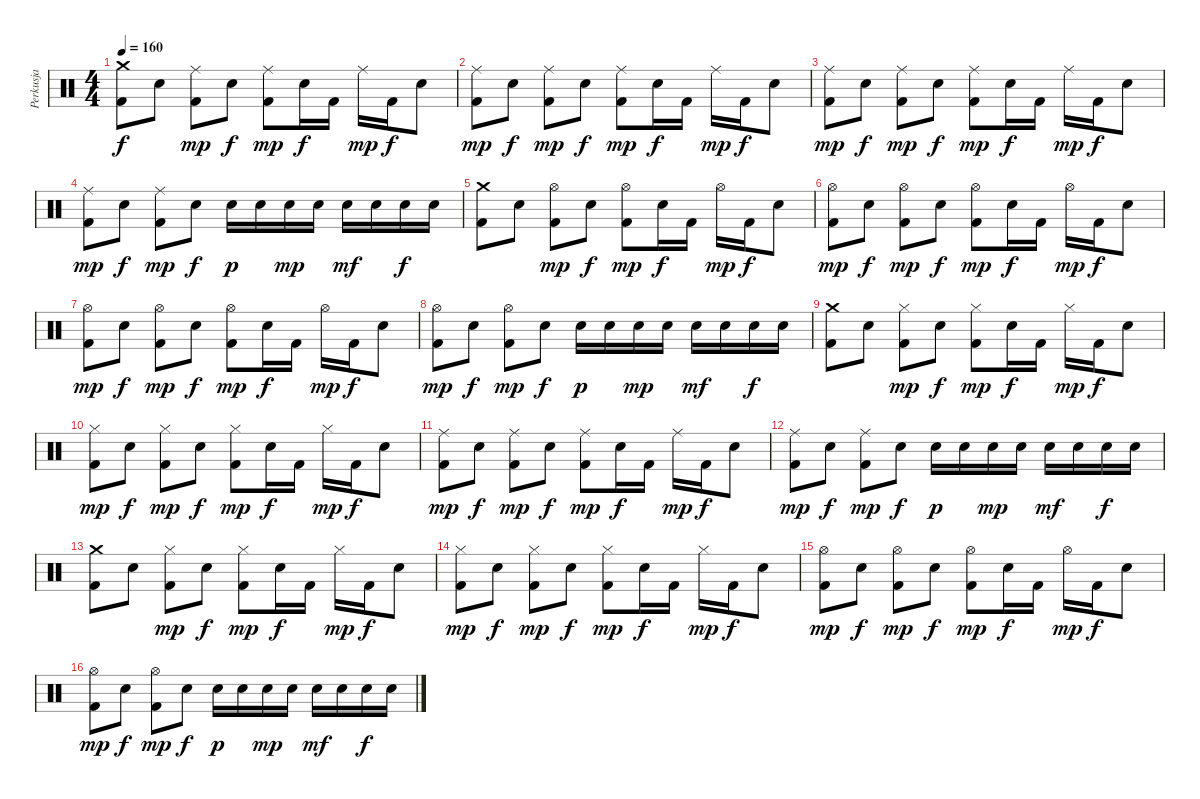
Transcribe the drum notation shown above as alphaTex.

\track ("Perkusja" "Perkusja") {instrument percussion}
\staff {score}
\articulation defaults
\ts (4 4)
\tempo 160
\clef neutral
\ks c
("Kick (hit) 2" "Crash medium (hit)").8{dy f} "Electric Snare (hit)".8 ("Kick (hit) 2" "Ride (middle)").8{dy mp} "Electric Snare (hit)".8{dy f} ("Kick (hit) 2" "Ride (middle)").8{dy mp} "Electric Snare (hit)".16{dy f} "Kick (hit) 2".16 "Ride (middle)".16{dy mp} "Kick (hit) 2".16{dy f} "Electric Snare (hit)".8 |
("Kick (hit) 2" "Ride (middle)").8{dy mp} "Electric Snare (hit)".8{dy f} ("Kick (hit) 2" "Ride (middle)").8{dy mp} "Electric Snare (hit)".8{dy f} ("Kick (hit) 2" "Ride (middle)").8{dy mp} "Electric Snare (hit)".16{dy f} "Kick (hit) 2".16 "Ride (middle)".16{dy mp} "Kick (hit) 2".16{dy f} "Electric Snare (hit)".8 |
("Kick (hit) 2" "Ride (middle)").8{dy mp} "Electric Snare (hit)".8{dy f} ("Kick (hit) 2" "Ride (middle)").8{dy mp} "Electric Snare (hit)".8{dy f} ("Kick (hit) 2" "Ride (middle)").8{dy mp} "Electric Snare (hit)".16{dy f} "Kick (hit) 2".16 "Ride (middle)".16{dy mp} "Kick (hit) 2".16{dy f} "Electric Snare (hit)".8 |
("Kick (hit) 2" "Ride (middle)").8{dy mp} "Electric Snare (hit)".8{dy f} ("Kick (hit) 2" "Ride (middle)").8{dy mp} "Electric Snare (hit)".8{dy f} "Electric Snare (hit)".16{dy p} "Electric Snare (hit)".16 "Electric Snare (hit)".16{dy mp} "Electric Snare (hit)".16 "Electric Snare (hit)".16{dy mf} "Electric Snare (hit)".16 "Electric Snare (hit)".16{dy f} "Electric Snare (hit)".16 |
("Kick (hit) 2" "Crash medium (hit)").8 "Electric Snare (hit)".8 ("Kick (hit) 2" "Hi-Hat (open)").8{dy mp} "Electric Snare (hit)".8{dy f} ("Kick (hit) 2" "Hi-Hat (open)").8{dy mp} "Electric Snare (hit)".16{dy f} "Kick (hit) 2".16 "Hi-Hat (open)".16{dy mp} "Kick (hit) 2".16{dy f} "Electric Snare (hit)".8 |
("Kick (hit) 2" "Hi-Hat (open)").8{dy mp} "Electric Snare (hit)".8{dy f} ("Kick (hit) 2" "Hi-Hat (open)").8{dy mp} "Electric Snare (hit)".8{dy f} ("Kick (hit) 2" "Hi-Hat (open)").8{dy mp} "Electric Snare (hit)".16{dy f} "Kick (hit) 2".16 "Hi-Hat (open)".16{dy mp} "Kick (hit) 2".16{dy f} "Electric Snare (hit)".8 |
("Kick (hit) 2" "Hi-Hat (open)").8{dy mp} "Electric Snare (hit)".8{dy f} ("Kick (hit) 2" "Hi-Hat (open)").8{dy mp} "Electric Snare (hit)".8{dy f} ("Kick (hit) 2" "Hi-Hat (open)").8{dy mp} "Electric Snare (hit)".16{dy f} "Kick (hit) 2".16 "Hi-Hat (open)".16{dy mp} "Kick (hit) 2".16{dy f} "Electric Snare (hit)".8 |
("Kick (hit) 2" "Hi-Hat (open)").8{dy mp} "Electric Snare (hit)".8{dy f} ("Kick (hit) 2" "Hi-Hat (open)").8{dy mp} "Electric Snare (hit)".8{dy f} "Electric Snare (hit)".16{dy p} "Electric Snare (hit)".16 "Electric Snare (hit)".16{dy mp} "Electric Snare (hit)".16 "Electric Snare (hit)".16{dy mf} "Electric Snare (hit)".16 "Electric Snare (hit)".16{dy f} "Electric Snare (hit)".16 |
("Kick (hit) 2" "Crash medium (hit)").8 "Electric Snare (hit)".8 ("Kick (hit) 2" "Hi-Hat (closed)").8{dy mp} "Electric Snare (hit)".8{dy f} ("Kick (hit) 2" "Hi-Hat (closed)").8{dy mp} "Electric Snare (hit)".16{dy f} "Kick (hit) 2".16 "Hi-Hat (closed)".16{dy mp} "Kick (hit) 2".16{dy f} "Electric Snare (hit)".8 |
("Kick (hit) 2" "Hi-Hat (closed)").8{dy mp} "Electric Snare (hit)".8{dy f} ("Kick (hit) 2" "Hi-Hat (closed)").8{dy mp} "Electric Snare (hit)".8{dy f} ("Kick (hit) 2" "Hi-Hat (closed)").8{dy mp} "Electric Snare (hit)".16{dy f} "Kick (hit) 2".16 "Hi-Hat (closed)".16{dy mp} "Kick (hit) 2".16{dy f} "Electric Snare (hit)".8 |
("Kick (hit) 2" "Ride (middle)").8{dy mp} "Electric Snare (hit)".8{dy f} ("Kick (hit) 2" "Ride (middle)").8{dy mp} "Electric Snare (hit)".8{dy f} ("Kick (hit) 2" "Ride (middle)").8{dy mp} "Electric Snare (hit)".16{dy f} "Kick (hit) 2".16 "Ride (middle)".16{dy mp} "Kick (hit) 2".16{dy f} "Electric Snare (hit)".8 |
("Kick (hit) 2" "Ride (middle)").8{dy mp} "Electric Snare (hit)".8{dy f} ("Kick (hit) 2" "Ride (middle)").8{dy mp} "Electric Snare (hit)".8{dy f} "Electric Snare (hit)".16{dy p} "Electric Snare (hit)".16 "Electric Snare (hit)".16{dy mp} "Electric Snare (hit)".16 "Electric Snare (hit)".16{dy mf} "Electric Snare (hit)".16 "Electric Snare (hit)".16{dy f} "Electric Snare (hit)".16 |
("Kick (hit) 2" "Crash medium (hit)").8 "Electric Snare (hit)".8 ("Kick (hit) 2" "Hi-Hat (closed)").8{dy mp} "Electric Snare (hit)".8{dy f} ("Kick (hit) 2" "Hi-Hat (closed)").8{dy mp} "Electric Snare (hit)".16{dy f} "Kick (hit) 2".16 "Hi-Hat (closed)".16{dy mp} "Kick (hit) 2".16{dy f} "Electric Snare (hit)".8 |
("Kick (hit) 2" "Hi-Hat (closed)").8{dy mp} "Electric Snare (hit)".8{dy f} ("Kick (hit) 2" "Hi-Hat (closed)").8{dy mp} "Electric Snare (hit)".8{dy f} ("Kick (hit) 2" "Hi-Hat (closed)").8{dy mp} "Electric Snare (hit)".16{dy f} "Kick (hit) 2".16 "Hi-Hat (closed)".16{dy mp} "Kick (hit) 2".16{dy f} "Electric Snare (hit)".8 |
("Kick (hit) 2" "Hi-Hat (open)").8{dy mp} "Electric Snare (hit)".8{dy f} ("Kick (hit) 2" "Hi-Hat (open)").8{dy mp} "Electric Snare (hit)".8{dy f} ("Kick (hit) 2" "Hi-Hat (open)").8{dy mp} "Electric Snare (hit)".16{dy f} "Kick (hit) 2".16 "Hi-Hat (open)".16{dy mp} "Kick (hit) 2".16{dy f} "Electric Snare (hit)".8 |
("Kick (hit) 2" "Hi-Hat (open)").8{dy mp} "Electric Snare (hit)".8{dy f} ("Kick (hit) 2" "Hi-Hat (open)").8{dy mp} "Electric Snare (hit)".8{dy f} "Electric Snare (hit)".16{dy p} "Electric Snare (hit)".16 "Electric Snare (hit)".16{dy mp} "Electric Snare (hit)".16 "Electric Snare (hit)".16{dy mf} "Electric Snare (hit)".16 "Electric Snare (hit)".16{dy f} "Electric Snare (hit)".16
